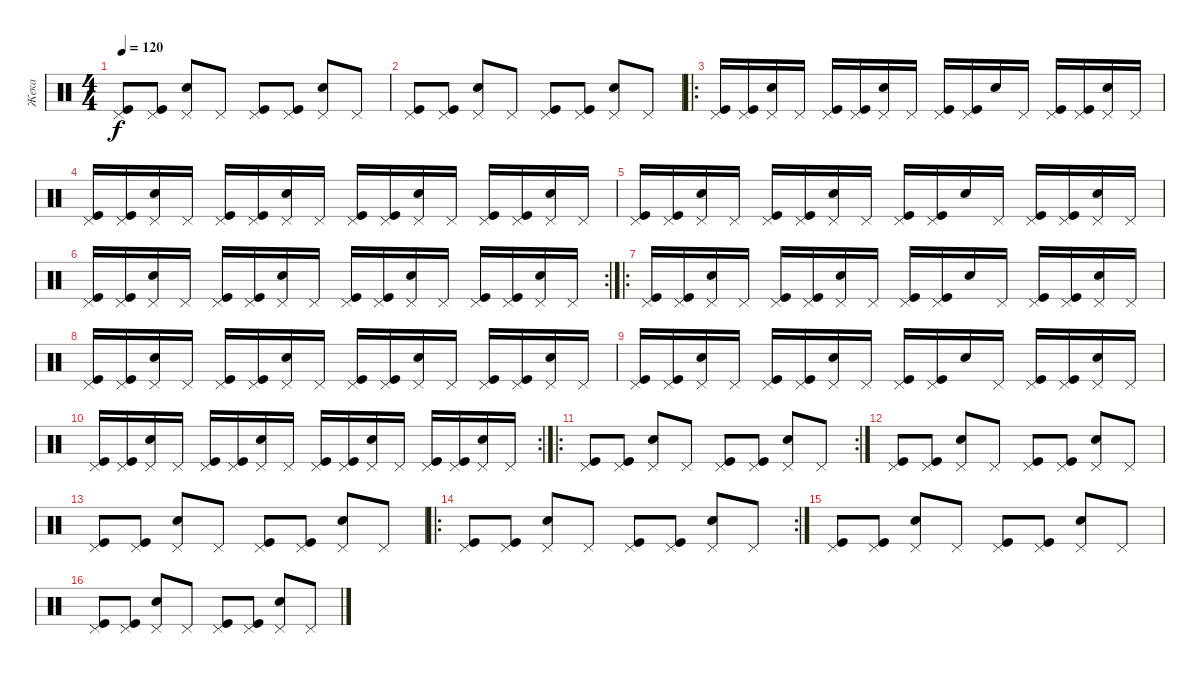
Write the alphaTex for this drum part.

\track ("Жека" "Жека") {solo instrument percussion}
\staff {score}
\articulation defaults
\ts (4 4)
\tempo 120
\clef neutral
\ks c
("Kick (hit)" "Pedal Hi-Hat (hit)").8{dy f} ("Kick (hit)" "Pedal Hi-Hat (hit)").8 ("Pedal Hi-Hat (hit)" "Snare (hit) 2").8 "Pedal Hi-Hat (hit)".8 ("Kick (hit)" "Pedal Hi-Hat (hit)").8 ("Kick (hit)" "Pedal Hi-Hat (hit)").8 ("Pedal Hi-Hat (hit)" "Snare (hit) 2").8 "Pedal Hi-Hat (hit)".8 |
("Kick (hit)" "Pedal Hi-Hat (hit)").8 ("Kick (hit)" "Pedal Hi-Hat (hit)").8 ("Pedal Hi-Hat (hit)" "Snare (hit) 2").8 "Pedal Hi-Hat (hit)".8 ("Kick (hit)" "Pedal Hi-Hat (hit)").8 ("Kick (hit)" "Pedal Hi-Hat (hit)").8 ("Pedal Hi-Hat (hit)" "Snare (hit) 2").8 "Pedal Hi-Hat (hit)".8 |
\ro
("Kick (hit)" "Pedal Hi-Hat (hit)").16 ("Kick (hit)" "Pedal Hi-Hat (hit)").16 ("Pedal Hi-Hat (hit)" "Snare (hit) 2").16 "Pedal Hi-Hat (hit)".16 ("Kick (hit)" "Pedal Hi-Hat (hit)").16 ("Kick (hit)" "Pedal Hi-Hat (hit)").16 ("Pedal Hi-Hat (hit)" "Snare (hit) 2").16 "Pedal Hi-Hat (hit)".16 ("Kick (hit)" "Pedal Hi-Hat (hit)").16 ("Kick (hit)" "Pedal Hi-Hat (hit)").16 "Snare (hit) 2".16 "Pedal Hi-Hat (hit)".16 ("Kick (hit)" "Pedal Hi-Hat (hit)").16 ("Kick (hit)" "Pedal Hi-Hat (hit)").16 ("Pedal Hi-Hat (hit)" "Snare (hit) 2").16 "Pedal Hi-Hat (hit)".16 |
("Kick (hit)" "Pedal Hi-Hat (hit)").16 ("Kick (hit)" "Pedal Hi-Hat (hit)").16 ("Pedal Hi-Hat (hit)" "Snare (hit) 2").16 "Pedal Hi-Hat (hit)".16 ("Kick (hit)" "Pedal Hi-Hat (hit)").16 ("Kick (hit)" "Pedal Hi-Hat (hit)").16 ("Pedal Hi-Hat (hit)" "Snare (hit) 2").16 "Pedal Hi-Hat (hit)".16 ("Kick (hit)" "Pedal Hi-Hat (hit)").16 ("Kick (hit)" "Pedal Hi-Hat (hit)").16 ("Pedal Hi-Hat (hit)" "Snare (hit) 2").16 "Pedal Hi-Hat (hit)".16 ("Kick (hit)" "Pedal Hi-Hat (hit)").16 ("Kick (hit)" "Pedal Hi-Hat (hit)").16 ("Pedal Hi-Hat (hit)" "Snare (hit) 2").16 "Pedal Hi-Hat (hit)".16 |
("Kick (hit)" "Pedal Hi-Hat (hit)").16 ("Kick (hit)" "Pedal Hi-Hat (hit)").16 ("Pedal Hi-Hat (hit)" "Snare (hit) 2").16 "Pedal Hi-Hat (hit)".16 ("Kick (hit)" "Pedal Hi-Hat (hit)").16 ("Kick (hit)" "Pedal Hi-Hat (hit)").16 ("Pedal Hi-Hat (hit)" "Snare (hit) 2").16 "Pedal Hi-Hat (hit)".16 ("Kick (hit)" "Pedal Hi-Hat (hit)").16 ("Kick (hit)" "Pedal Hi-Hat (hit)").16 "Snare (hit) 2".16 "Pedal Hi-Hat (hit)".16 ("Kick (hit)" "Pedal Hi-Hat (hit)").16 ("Kick (hit)" "Pedal Hi-Hat (hit)").16 ("Pedal Hi-Hat (hit)" "Snare (hit) 2").16 "Pedal Hi-Hat (hit)".16 |
\rc 2
("Kick (hit)" "Pedal Hi-Hat (hit)").16 ("Kick (hit)" "Pedal Hi-Hat (hit)").16 ("Pedal Hi-Hat (hit)" "Snare (hit) 2").16 "Pedal Hi-Hat (hit)".16 ("Kick (hit)" "Pedal Hi-Hat (hit)").16 ("Kick (hit)" "Pedal Hi-Hat (hit)").16 ("Pedal Hi-Hat (hit)" "Snare (hit) 2").16 "Pedal Hi-Hat (hit)".16 ("Kick (hit)" "Pedal Hi-Hat (hit)").16 ("Kick (hit)" "Pedal Hi-Hat (hit)").16 ("Pedal Hi-Hat (hit)" "Snare (hit) 2").16 "Pedal Hi-Hat (hit)".16 ("Kick (hit)" "Pedal Hi-Hat (hit)").16 ("Kick (hit)" "Pedal Hi-Hat (hit)").16 ("Pedal Hi-Hat (hit)" "Snare (hit) 2").16 "Pedal Hi-Hat (hit)".16 |
\ro
("Kick (hit)" "Pedal Hi-Hat (hit)").16 ("Kick (hit)" "Pedal Hi-Hat (hit)").16 ("Pedal Hi-Hat (hit)" "Snare (hit) 2").16 "Pedal Hi-Hat (hit)".16 ("Kick (hit)" "Pedal Hi-Hat (hit)").16 ("Kick (hit)" "Pedal Hi-Hat (hit)").16 ("Pedal Hi-Hat (hit)" "Snare (hit) 2").16 "Pedal Hi-Hat (hit)".16 ("Kick (hit)" "Pedal Hi-Hat (hit)").16 ("Kick (hit)" "Pedal Hi-Hat (hit)").16 "Snare (hit) 2".16 "Pedal Hi-Hat (hit)".16 ("Kick (hit)" "Pedal Hi-Hat (hit)").16 ("Kick (hit)" "Pedal Hi-Hat (hit)").16 ("Pedal Hi-Hat (hit)" "Snare (hit) 2").16 "Pedal Hi-Hat (hit)".16 |
("Kick (hit)" "Pedal Hi-Hat (hit)").16 ("Kick (hit)" "Pedal Hi-Hat (hit)").16 ("Pedal Hi-Hat (hit)" "Snare (hit) 2").16 "Pedal Hi-Hat (hit)".16 ("Kick (hit)" "Pedal Hi-Hat (hit)").16 ("Kick (hit)" "Pedal Hi-Hat (hit)").16 ("Pedal Hi-Hat (hit)" "Snare (hit) 2").16 "Pedal Hi-Hat (hit)".16 ("Kick (hit)" "Pedal Hi-Hat (hit)").16 ("Kick (hit)" "Pedal Hi-Hat (hit)").16 ("Pedal Hi-Hat (hit)" "Snare (hit) 2").16 "Pedal Hi-Hat (hit)".16 ("Kick (hit)" "Pedal Hi-Hat (hit)").16 ("Kick (hit)" "Pedal Hi-Hat (hit)").16 ("Pedal Hi-Hat (hit)" "Snare (hit) 2").16 "Pedal Hi-Hat (hit)".16 |
("Kick (hit)" "Pedal Hi-Hat (hit)").16 ("Kick (hit)" "Pedal Hi-Hat (hit)").16 ("Pedal Hi-Hat (hit)" "Snare (hit) 2").16 "Pedal Hi-Hat (hit)".16 ("Kick (hit)" "Pedal Hi-Hat (hit)").16 ("Kick (hit)" "Pedal Hi-Hat (hit)").16 ("Pedal Hi-Hat (hit)" "Snare (hit) 2").16 "Pedal Hi-Hat (hit)".16 ("Kick (hit)" "Pedal Hi-Hat (hit)").16 ("Kick (hit)" "Pedal Hi-Hat (hit)").16 "Snare (hit) 2".16 "Pedal Hi-Hat (hit)".16 ("Kick (hit)" "Pedal Hi-Hat (hit)").16 ("Kick (hit)" "Pedal Hi-Hat (hit)").16 ("Pedal Hi-Hat (hit)" "Snare (hit) 2").16 "Pedal Hi-Hat (hit)".16 |
\rc 2
("Kick (hit)" "Pedal Hi-Hat (hit)").16 ("Kick (hit)" "Pedal Hi-Hat (hit)").16 ("Pedal Hi-Hat (hit)" "Snare (hit) 2").16 "Pedal Hi-Hat (hit)".16 ("Kick (hit)" "Pedal Hi-Hat (hit)").16 ("Kick (hit)" "Pedal Hi-Hat (hit)").16 ("Pedal Hi-Hat (hit)" "Snare (hit) 2").16 "Pedal Hi-Hat (hit)".16 ("Kick (hit)" "Pedal Hi-Hat (hit)").16 ("Kick (hit)" "Pedal Hi-Hat (hit)").16 ("Pedal Hi-Hat (hit)" "Snare (hit) 2").16 "Pedal Hi-Hat (hit)".16 ("Kick (hit)" "Pedal Hi-Hat (hit)").16 ("Kick (hit)" "Pedal Hi-Hat (hit)").16 ("Pedal Hi-Hat (hit)" "Snare (hit) 2").16 "Pedal Hi-Hat (hit)".16 |
\ro
\rc 2
("Kick (hit)" "Pedal Hi-Hat (hit)").8 ("Kick (hit)" "Pedal Hi-Hat (hit)").8 ("Pedal Hi-Hat (hit)" "Snare (hit) 2").8 "Pedal Hi-Hat (hit)".8 ("Kick (hit)" "Pedal Hi-Hat (hit)").8 ("Kick (hit)" "Pedal Hi-Hat (hit)").8 ("Pedal Hi-Hat (hit)" "Snare (hit) 2").8 "Pedal Hi-Hat (hit)".8 |
("Kick (hit)" "Pedal Hi-Hat (hit)").8 ("Kick (hit)" "Pedal Hi-Hat (hit)").8 ("Pedal Hi-Hat (hit)" "Snare (hit) 2").8 "Pedal Hi-Hat (hit)".8 ("Kick (hit)" "Pedal Hi-Hat (hit)").8 ("Kick (hit)" "Pedal Hi-Hat (hit)").8 ("Pedal Hi-Hat (hit)" "Snare (hit) 2").8 "Pedal Hi-Hat (hit)".8 |
("Kick (hit)" "Pedal Hi-Hat (hit)").8 ("Kick (hit)" "Pedal Hi-Hat (hit)").8 ("Pedal Hi-Hat (hit)" "Snare (hit) 2").8 "Pedal Hi-Hat (hit)".8 ("Kick (hit)" "Pedal Hi-Hat (hit)").8 ("Kick (hit)" "Pedal Hi-Hat (hit)").8 ("Pedal Hi-Hat (hit)" "Snare (hit) 2").8 "Pedal Hi-Hat (hit)".8 |
\ro
\rc 2
("Kick (hit)" "Pedal Hi-Hat (hit)").8 ("Kick (hit)" "Pedal Hi-Hat (hit)").8 ("Pedal Hi-Hat (hit)" "Snare (hit) 2").8 "Pedal Hi-Hat (hit)".8 ("Kick (hit)" "Pedal Hi-Hat (hit)").8 ("Kick (hit)" "Pedal Hi-Hat (hit)").8 ("Pedal Hi-Hat (hit)" "Snare (hit) 2").8 "Pedal Hi-Hat (hit)".8 |
("Kick (hit)" "Pedal Hi-Hat (hit)").8 ("Kick (hit)" "Pedal Hi-Hat (hit)").8 ("Pedal Hi-Hat (hit)" "Snare (hit) 2").8 "Pedal Hi-Hat (hit)".8 ("Kick (hit)" "Pedal Hi-Hat (hit)").8 ("Kick (hit)" "Pedal Hi-Hat (hit)").8 ("Pedal Hi-Hat (hit)" "Snare (hit) 2").8 "Pedal Hi-Hat (hit)".8 |
("Kick (hit)" "Pedal Hi-Hat (hit)").8 ("Kick (hit)" "Pedal Hi-Hat (hit)").8 ("Pedal Hi-Hat (hit)" "Snare (hit) 2").8 "Pedal Hi-Hat (hit)".8 ("Kick (hit)" "Pedal Hi-Hat (hit)").8 ("Kick (hit)" "Pedal Hi-Hat (hit)").8 ("Pedal Hi-Hat (hit)" "Snare (hit) 2").8 "Pedal Hi-Hat (hit)".8
